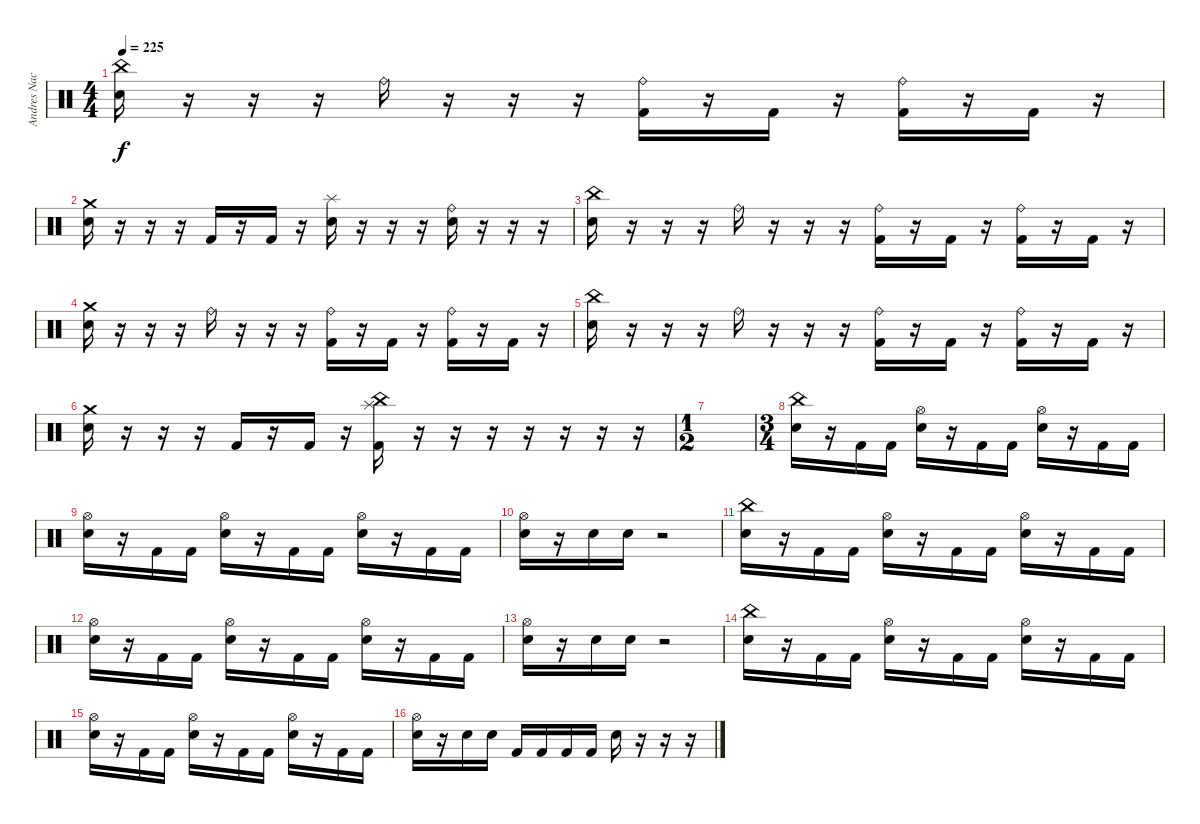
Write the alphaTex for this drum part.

\track ("Andres Nacrur" "Andres Nac") {instrument percussion}
\staff {score}
\articulation defaults
\ts (4 4)
\tempo 225
\clef neutral
\ks c
("China (hit)" "Snare (hit) 2").16{dy f} r.16 r.16 r.16 "Ride (bell)".16 r.16 r.16 r.16 ("Ride (bell)" "Kick (hit) 2").16 r.16 "Kick (hit) 2".16 r.16 ("Ride (bell)" "Kick (hit) 2").16 r.16 "Kick (hit) 2".16 r.16 |
("Crash medium (hit)" "Snare (hit) 2").16 r.16 r.16 r.16 "Kick (hit) 2".16 r.16 "Kick (hit) 2".16 r.16 ("Splash (hit)" "Snare (hit) 2").16 r.16 r.16 r.16 ("Ride (bell)" "Snare (hit) 2").16 r.16 r.16 r.16 |
("China (hit)" "Snare (hit) 2").16 r.16 r.16 r.16 "Ride (bell)".16 r.16 r.16 r.16 ("Ride (bell)" "Kick (hit) 2").16 r.16 "Kick (hit) 2".16 r.16 ("Ride (bell)" "Kick (hit) 2").16 r.16 "Kick (hit) 2".16 r.16 |
("Crash medium (hit)" "Snare (hit) 2").16 r.16 r.16 r.16 "Ride (bell)".16 r.16 r.16 r.16 ("Ride (bell)" "Kick (hit) 2").16 r.16 "Kick (hit) 2".16 r.16 ("Ride (bell)" "Kick (hit) 2").16 r.16 "Kick (hit) 2".16 r.16 |
("China (hit)" "Snare (hit) 2").16 r.16 r.16 r.16 "Ride (bell)".16 r.16 r.16 r.16 ("Ride (bell)" "Kick (hit) 2").16 r.16 "Kick (hit) 2".16 r.16 ("Ride (bell)" "Kick (hit) 2").16 r.16 "Kick (hit) 2".16 r.16 |
("Crash medium (hit)" "Snare (hit) 2").16 r.16 r.16 r.16 "Kick (hit) 2".16 r.16 "Kick (hit) 2".16 r.16 ("Splash (hit)" "China (hit)" "Kick (hit) 2").16 r.16 r.16 r.16 r.16 r.16 r.16 r.16 |
\ts (1 2)
|
\ts (3 4)
("China (hit)" "Snare (hit) 2").16 r.16 "Kick (hit) 2".16 "Kick (hit) 2".16 ("Hi-Hat (open)" "Snare (hit) 2").16 r.16 "Kick (hit) 2".16 "Kick (hit) 2".16 ("Hi-Hat (open)" "Snare (hit) 2").16 r.16 "Kick (hit) 2".16 "Kick (hit) 2".16 |
("Hi-Hat (open)" "Snare (hit) 2").16 r.16 "Kick (hit) 2".16 "Kick (hit) 2".16 ("Hi-Hat (open)" "Snare (hit) 2").16 r.16 "Kick (hit) 2".16 "Kick (hit) 2".16 ("Hi-Hat (open)" "Snare (hit) 2").16 r.16 "Kick (hit) 2".16 "Kick (hit) 2".16 |
("Hi-Hat (open)" "Snare (hit) 2").16 r.16 "Snare (hit) 2".16 "Snare (hit) 2".16 r.2 |
("China (hit)" "Snare (hit) 2").16 r.16 "Kick (hit) 2".16 "Kick (hit) 2".16 ("Hi-Hat (open)" "Snare (hit) 2").16 r.16 "Kick (hit) 2".16 "Kick (hit) 2".16 ("Hi-Hat (open)" "Snare (hit) 2").16 r.16 "Kick (hit) 2".16 "Kick (hit) 2".16 |
("Hi-Hat (open)" "Snare (hit) 2").16 r.16 "Kick (hit) 2".16 "Kick (hit) 2".16 ("Hi-Hat (open)" "Snare (hit) 2").16 r.16 "Kick (hit) 2".16 "Kick (hit) 2".16 ("Hi-Hat (open)" "Snare (hit) 2").16 r.16 "Kick (hit) 2".16 "Kick (hit) 2".16 |
("Hi-Hat (open)" "Snare (hit) 2").16 r.16 "Snare (hit) 2".16 "Snare (hit) 2".16 r.2 |
("China (hit)" "Snare (hit) 2").16 r.16 "Kick (hit) 2".16 "Kick (hit) 2".16 ("Hi-Hat (open)" "Snare (hit) 2").16 r.16 "Kick (hit) 2".16 "Kick (hit) 2".16 ("Hi-Hat (open)" "Snare (hit) 2").16 r.16 "Kick (hit) 2".16 "Kick (hit) 2".16 |
("Hi-Hat (open)" "Snare (hit) 2").16 r.16 "Kick (hit) 2".16 "Kick (hit) 2".16 ("Hi-Hat (open)" "Snare (hit) 2").16 r.16 "Kick (hit) 2".16 "Kick (hit) 2".16 ("Hi-Hat (open)" "Snare (hit) 2").16 r.16 "Kick (hit) 2".16 "Kick (hit) 2".16 |
("Hi-Hat (open)" "Snare (hit) 2").16 r.16 "Snare (hit) 2".16 "Snare (hit) 2".16 "Kick (hit) 2".16 "Kick (hit) 2".16 "Kick (hit) 2".16 "Kick (hit) 2".16 "Snare (hit) 2".16 r.16 r.16 r.16
